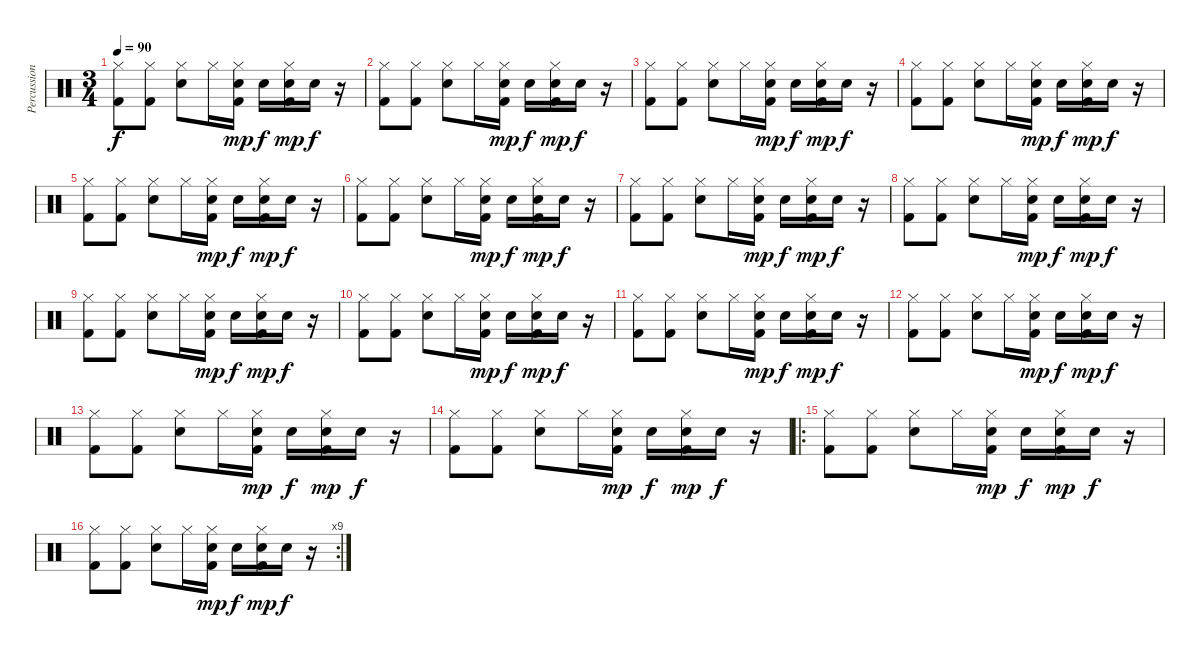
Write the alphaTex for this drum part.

\track ("Percussions" "Percussion") {instrument percussion}
\staff {score}
\articulation defaults
\ts (3 4)
\tempo 90
\clef neutral
\ks c
("Hi-Hat (closed)" "Kick (hit) 2").8{dy f} ("Hi-Hat (closed)" "Kick (hit) 2").8 ("Hi-Hat (closed)" "Electric Snare (hit)").8 "Hi-Hat (closed)".16 ("Hi-Hat (closed)" "Electric Snare (hit)" "Kick (hit) 2").16{dy mp} "Electric Snare (hit)".16{dy f} ("Hi-Hat (closed)" "Electric Snare (hit)" "Kick (hit) 2").16{dy mp} "Electric Snare (hit)".16{dy f} r.16 |
("Hi-Hat (closed)" "Kick (hit) 2").8 ("Hi-Hat (closed)" "Kick (hit) 2").8 ("Hi-Hat (closed)" "Electric Snare (hit)").8 "Hi-Hat (closed)".16 ("Hi-Hat (closed)" "Electric Snare (hit)" "Kick (hit) 2").16{dy mp} "Electric Snare (hit)".16{dy f} ("Hi-Hat (closed)" "Electric Snare (hit)" "Kick (hit) 2").16{dy mp} "Electric Snare (hit)".16{dy f} r.16 |
("Hi-Hat (closed)" "Kick (hit) 2").8 ("Hi-Hat (closed)" "Kick (hit) 2").8 ("Hi-Hat (closed)" "Electric Snare (hit)").8 "Hi-Hat (closed)".16 ("Hi-Hat (closed)" "Electric Snare (hit)" "Kick (hit) 2").16{dy mp} "Electric Snare (hit)".16{dy f} ("Hi-Hat (closed)" "Electric Snare (hit)" "Kick (hit) 2").16{dy mp} "Electric Snare (hit)".16{dy f} r.16 |
("Hi-Hat (closed)" "Kick (hit) 2").8 ("Hi-Hat (closed)" "Kick (hit) 2").8 ("Hi-Hat (closed)" "Electric Snare (hit)").8 "Hi-Hat (closed)".16 ("Hi-Hat (closed)" "Electric Snare (hit)" "Kick (hit) 2").16{dy mp} "Electric Snare (hit)".16{dy f} ("Hi-Hat (closed)" "Electric Snare (hit)" "Kick (hit) 2").16{dy mp} "Electric Snare (hit)".16{dy f} r.16 |
("Hi-Hat (closed)" "Kick (hit) 2").8 ("Hi-Hat (closed)" "Kick (hit) 2").8 ("Hi-Hat (closed)" "Electric Snare (hit)").8 "Hi-Hat (closed)".16 ("Hi-Hat (closed)" "Electric Snare (hit)" "Kick (hit) 2").16{dy mp} "Electric Snare (hit)".16{dy f} ("Hi-Hat (closed)" "Electric Snare (hit)" "Kick (hit) 2").16{dy mp} "Electric Snare (hit)".16{dy f} r.16 |
("Hi-Hat (closed)" "Kick (hit) 2").8 ("Hi-Hat (closed)" "Kick (hit) 2").8 ("Hi-Hat (closed)" "Electric Snare (hit)").8 "Hi-Hat (closed)".16 ("Hi-Hat (closed)" "Electric Snare (hit)" "Kick (hit) 2").16{dy mp} "Electric Snare (hit)".16{dy f} ("Hi-Hat (closed)" "Electric Snare (hit)" "Kick (hit) 2").16{dy mp} "Electric Snare (hit)".16{dy f} r.16 |
("Hi-Hat (closed)" "Kick (hit) 2").8 ("Hi-Hat (closed)" "Kick (hit) 2").8 ("Hi-Hat (closed)" "Electric Snare (hit)").8 "Hi-Hat (closed)".16 ("Hi-Hat (closed)" "Electric Snare (hit)" "Kick (hit) 2").16{dy mp} "Electric Snare (hit)".16{dy f} ("Hi-Hat (closed)" "Electric Snare (hit)" "Kick (hit) 2").16{dy mp} "Electric Snare (hit)".16{dy f} r.16 |
("Hi-Hat (closed)" "Kick (hit) 2").8 ("Hi-Hat (closed)" "Kick (hit) 2").8 ("Hi-Hat (closed)" "Electric Snare (hit)").8 "Hi-Hat (closed)".16 ("Hi-Hat (closed)" "Electric Snare (hit)" "Kick (hit) 2").16{dy mp} "Electric Snare (hit)".16{dy f} ("Hi-Hat (closed)" "Electric Snare (hit)" "Kick (hit) 2").16{dy mp} "Electric Snare (hit)".16{dy f} r.16 |
("Hi-Hat (closed)" "Kick (hit) 2").8 ("Hi-Hat (closed)" "Kick (hit) 2").8 ("Hi-Hat (closed)" "Electric Snare (hit)").8 "Hi-Hat (closed)".16 ("Hi-Hat (closed)" "Electric Snare (hit)" "Kick (hit) 2").16{dy mp} "Electric Snare (hit)".16{dy f} ("Hi-Hat (closed)" "Electric Snare (hit)" "Kick (hit) 2").16{dy mp} "Electric Snare (hit)".16{dy f} r.16 |
("Hi-Hat (closed)" "Kick (hit) 2").8 ("Hi-Hat (closed)" "Kick (hit) 2").8 ("Hi-Hat (closed)" "Electric Snare (hit)").8 "Hi-Hat (closed)".16 ("Hi-Hat (closed)" "Electric Snare (hit)" "Kick (hit) 2").16{dy mp} "Electric Snare (hit)".16{dy f} ("Hi-Hat (closed)" "Electric Snare (hit)" "Kick (hit) 2").16{dy mp} "Electric Snare (hit)".16{dy f} r.16 |
("Hi-Hat (closed)" "Kick (hit) 2").8 ("Hi-Hat (closed)" "Kick (hit) 2").8 ("Hi-Hat (closed)" "Electric Snare (hit)").8 "Hi-Hat (closed)".16 ("Hi-Hat (closed)" "Electric Snare (hit)" "Kick (hit) 2").16{dy mp} "Electric Snare (hit)".16{dy f} ("Hi-Hat (closed)" "Electric Snare (hit)" "Kick (hit) 2").16{dy mp} "Electric Snare (hit)".16{dy f} r.16 |
("Hi-Hat (closed)" "Kick (hit) 2").8 ("Hi-Hat (closed)" "Kick (hit) 2").8 ("Hi-Hat (closed)" "Electric Snare (hit)").8 "Hi-Hat (closed)".16 ("Hi-Hat (closed)" "Electric Snare (hit)" "Kick (hit) 2").16{dy mp} "Electric Snare (hit)".16{dy f} ("Hi-Hat (closed)" "Electric Snare (hit)" "Kick (hit) 2").16{dy mp} "Electric Snare (hit)".16{dy f} r.16 |
("Hi-Hat (closed)" "Kick (hit) 2").8 ("Hi-Hat (closed)" "Kick (hit) 2").8 ("Hi-Hat (closed)" "Electric Snare (hit)").8 "Hi-Hat (closed)".16 ("Hi-Hat (closed)" "Electric Snare (hit)" "Kick (hit) 2").16{dy mp} "Electric Snare (hit)".16{dy f} ("Hi-Hat (closed)" "Electric Snare (hit)" "Kick (hit) 2").16{dy mp} "Electric Snare (hit)".16{dy f} r.16 |
("Hi-Hat (closed)" "Kick (hit) 2").8 ("Hi-Hat (closed)" "Kick (hit) 2").8 ("Hi-Hat (closed)" "Electric Snare (hit)").8 "Hi-Hat (closed)".16 ("Hi-Hat (closed)" "Electric Snare (hit)" "Kick (hit) 2").16{dy mp} "Electric Snare (hit)".16{dy f} ("Hi-Hat (closed)" "Electric Snare (hit)" "Kick (hit) 2").16{dy mp} "Electric Snare (hit)".16{dy f} r.16 |
\ro
("Hi-Hat (closed)" "Kick (hit) 2").8 ("Hi-Hat (closed)" "Kick (hit) 2").8 ("Hi-Hat (closed)" "Electric Snare (hit)").8 "Hi-Hat (closed)".16 ("Hi-Hat (closed)" "Electric Snare (hit)" "Kick (hit) 2").16{dy mp} "Electric Snare (hit)".16{dy f} ("Hi-Hat (closed)" "Electric Snare (hit)" "Kick (hit) 2").16{dy mp} "Electric Snare (hit)".16{dy f} r.16 |
\rc 9
("Hi-Hat (closed)" "Kick (hit) 2").8 ("Hi-Hat (closed)" "Kick (hit) 2").8 ("Hi-Hat (closed)" "Electric Snare (hit)").8 "Hi-Hat (closed)".16 ("Hi-Hat (closed)" "Electric Snare (hit)" "Kick (hit) 2").16{dy mp} "Electric Snare (hit)".16{dy f} ("Hi-Hat (closed)" "Electric Snare (hit)" "Kick (hit) 2").16{dy mp} "Electric Snare (hit)".16{dy f} r.16
